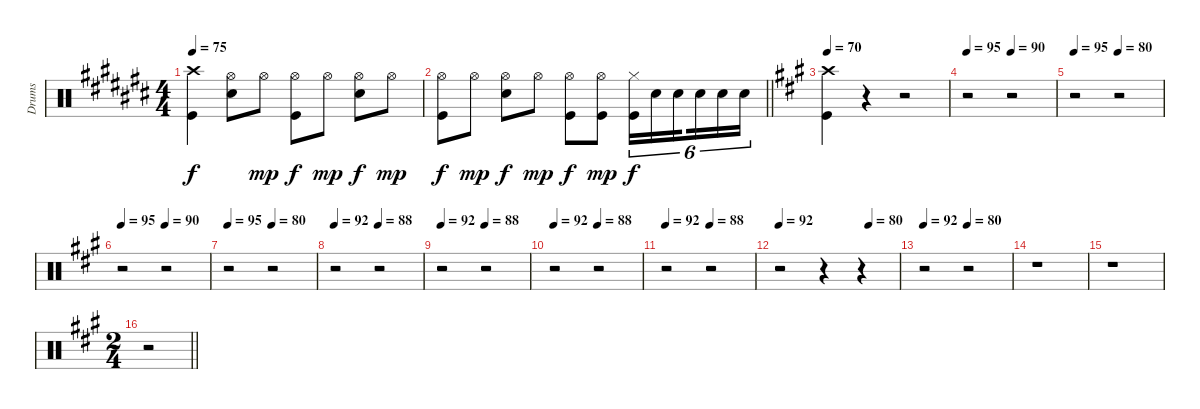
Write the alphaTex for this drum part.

\track ("Drums" "Drums") {instrument percussion}
\staff {score}
\articulation defaults
\ts (4 4)
\tempo 75
\clef neutral
\ks c#
("Crash high (hit)" "Kick (hit)").4{dy f} ("Hi-Hat (open)" "Snare (hit) 2").8 "Hi-Hat (open)".8{dy mp} ("Hi-Hat (open)" "Kick (hit)").8{dy f} "Hi-Hat (open)".8{dy mp} ("Hi-Hat (open)" "Snare (hit) 2").8{dy f} "Hi-Hat (open)".8{dy mp} |
\barLineRight lightlight
("Hi-Hat (open)" "Kick (hit)").8{dy f} "Hi-Hat (open)".8{dy mp} ("Hi-Hat (open)" "Snare (hit) 2").8{dy f} "Hi-Hat (open)".8{dy mp} ("Hi-Hat (open)" "Kick (hit)").8{dy f} ("Hi-Hat (open)" "Kick (hit)").8{dy mp} ("Hi-Hat (closed)" "Kick (hit)").16{tu (6 4) dy f} "Snare (hit) 2".16{tu (6 4)} "Snare (hit) 2".16{tu (6 4) beam splitsecondary} "Snare (hit) 2".16{tu (6 4)} "Snare (hit) 2".16{tu (6 4)} "Snare (hit) 2".16{tu (6 4)} |
\tempo 70
\ks a
("Crash high (hit)" "Kick (hit)").4 r.4 r.2 |
\tempo 95
\tempo (90 0.5)
r.2 r.2 |
\tempo 95
\tempo (80 0.5)
r.2 r.2 |
\tempo 95
\tempo (90 0.5)
r.2 r.2 |
\tempo 95
\tempo (80 0.5)
r.2 r.2 |
\tempo 92
\tempo (88 0.5)
r.2 r.2 |
\tempo 92
\tempo (88 0.5)
r.2 r.2 |
\tempo 92
\tempo (88 0.5)
r.2 r.2 |
\tempo 92
\tempo (88 0.5)
r.2 r.2 |
\tempo 92
\tempo (80 0.75)
r.2 r.4 r.4 |
\tempo 92
\tempo (80 0.5)
r.2 r.2 |
r.1 |
r.1 |
\ts (2 4)
\barLineRight lightlight
r.2
